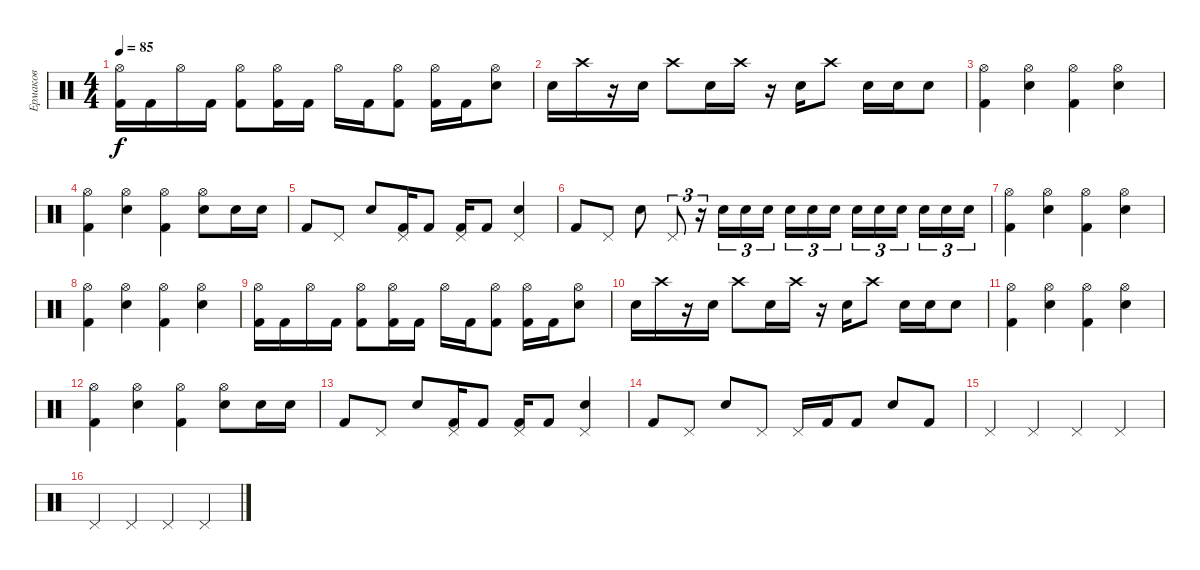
\track ("Ермаков" "Ермаков") {instrument percussion}
\staff {score}
\articulation defaults
\ts (4 4)
\tempo 85
\clef neutral
\ks c
("Hi-Hat (open)" "Kick (hit) 2").16{dy f} "Kick (hit) 2".16 "Hi-Hat (open)".16 "Kick (hit) 2".16 ("Hi-Hat (open)" "Kick (hit) 2").8 ("Hi-Hat (open)" "Kick (hit) 2").16 "Kick (hit) 2".16 "Hi-Hat (open)".16 "Kick (hit) 2".16 ("Hi-Hat (open)" "Kick (hit) 2").8 ("Hi-Hat (open)" "Kick (hit) 2").16 "Kick (hit) 2".16 ("Hi-Hat (open)" "Snare (hit) 2").8 |
"Snare (hit) 2".16 "Crash high (hit)".16 r.16 "Snare (hit) 2".16 "Crash high (hit)".8 "Snare (hit) 2".16 "Crash high (hit)".16 r.16 "Snare (hit) 2".16 "Crash high (hit)".8 "Snare (hit) 2".16 "Snare (hit) 2".16 "Snare (hit) 2".8 |
("Hi-Hat (open)" "Kick (hit) 2").4 ("Hi-Hat (open)" "Snare (hit) 2").4 ("Hi-Hat (open)" "Kick (hit) 2").4 ("Hi-Hat (open)" "Snare (hit) 2").4 |
("Hi-Hat (open)" "Kick (hit) 2").4 ("Hi-Hat (open)" "Snare (hit) 2").4 ("Hi-Hat (open)" "Kick (hit) 2").4 ("Hi-Hat (open)" "Snare (hit) 2").8 "Snare (hit) 2".16 "Snare (hit) 2".16 |
"Kick (hit) 2".8 "Pedal Hi-Hat (hit)".8 "Electric Snare (hit)".8 ("Pedal Hi-Hat (hit)" "Kick (hit) 2").16 "Kick (hit) 2".8 ("Pedal Hi-Hat (hit)" "Kick (hit) 2").16 "Kick (hit) 2".8 ("Pedal Hi-Hat (hit)" "Snare (hit) 2").4 |
"Kick (hit) 2".8 "Pedal Hi-Hat (hit)".8 "Electric Snare (hit)".8 "Pedal Hi-Hat (hit)".8{tu (3 2)} r.16{tu (3 2)} "Snare (hit) 2".16{tu (3 2)} "Snare (hit) 2".16{tu (3 2)} "Snare (hit) 2".16{tu (3 2) beam splitsecondary} "Snare (hit) 2".16{tu (3 2)} "Snare (hit) 2".16{tu (3 2)} "Snare (hit) 2".16{tu (3 2)} "Snare (hit) 2".16{tu (3 2)} "Snare (hit) 2".16{tu (3 2)} "Snare (hit) 2".16{tu (3 2) beam splitsecondary} "Snare (hit) 2".16{tu (3 2)} "Snare (hit) 2".16{tu (3 2)} "Snare (hit) 2".16{tu (3 2)} |
("Hi-Hat (open)" "Kick (hit) 2").4 ("Hi-Hat (open)" "Snare (hit) 2").4 ("Hi-Hat (open)" "Kick (hit) 2").4 ("Hi-Hat (open)" "Snare (hit) 2").4 |
("Hi-Hat (open)" "Kick (hit) 2").4 ("Hi-Hat (open)" "Snare (hit) 2").4 ("Hi-Hat (open)" "Kick (hit) 2").4 ("Hi-Hat (open)" "Snare (hit) 2").4 |
("Hi-Hat (open)" "Kick (hit) 2").16 "Kick (hit) 2".16 "Hi-Hat (open)".16 "Kick (hit) 2".16 ("Hi-Hat (open)" "Kick (hit) 2").8 ("Hi-Hat (open)" "Kick (hit) 2").16 "Kick (hit) 2".16 "Hi-Hat (open)".16 "Kick (hit) 2".16 ("Hi-Hat (open)" "Kick (hit) 2").8 ("Hi-Hat (open)" "Kick (hit) 2").16 "Kick (hit) 2".16 ("Hi-Hat (open)" "Snare (hit) 2").8 |
"Snare (hit) 2".16 "Crash high (hit)".16 r.16 "Snare (hit) 2".16 "Crash high (hit)".8 "Snare (hit) 2".16 "Crash high (hit)".16 r.16 "Snare (hit) 2".16 "Crash high (hit)".8 "Snare (hit) 2".16 "Snare (hit) 2".16 "Snare (hit) 2".8 |
("Hi-Hat (open)" "Kick (hit) 2").4 ("Hi-Hat (open)" "Snare (hit) 2").4 ("Hi-Hat (open)" "Kick (hit) 2").4 ("Hi-Hat (open)" "Snare (hit) 2").4 |
("Hi-Hat (open)" "Kick (hit) 2").4 ("Hi-Hat (open)" "Snare (hit) 2").4 ("Hi-Hat (open)" "Kick (hit) 2").4 ("Hi-Hat (open)" "Snare (hit) 2").8 "Snare (hit) 2".16 "Snare (hit) 2".16 |
"Kick (hit) 2".8 "Pedal Hi-Hat (hit)".8 "Electric Snare (hit)".8 ("Pedal Hi-Hat (hit)" "Kick (hit) 2").16 "Kick (hit) 2".8 ("Pedal Hi-Hat (hit)" "Kick (hit) 2").16 "Kick (hit) 2".8 ("Pedal Hi-Hat (hit)" "Snare (hit) 2").4 |
"Kick (hit) 2".8 "Pedal Hi-Hat (hit)".8 "Electric Snare (hit)".8 "Pedal Hi-Hat (hit)".8 "Pedal Hi-Hat (hit)".16 "Kick (hit) 2".16 "Kick (hit) 2".8 "Snare (hit) 2".8 "Kick (hit) 2".8 |
"Pedal Hi-Hat (hit)".4 "Pedal Hi-Hat (hit)".4 "Pedal Hi-Hat (hit)".4 "Pedal Hi-Hat (hit)".4 |
"Pedal Hi-Hat (hit)".4 "Pedal Hi-Hat (hit)".4 "Pedal Hi-Hat (hit)".4 "Pedal Hi-Hat (hit)".4
